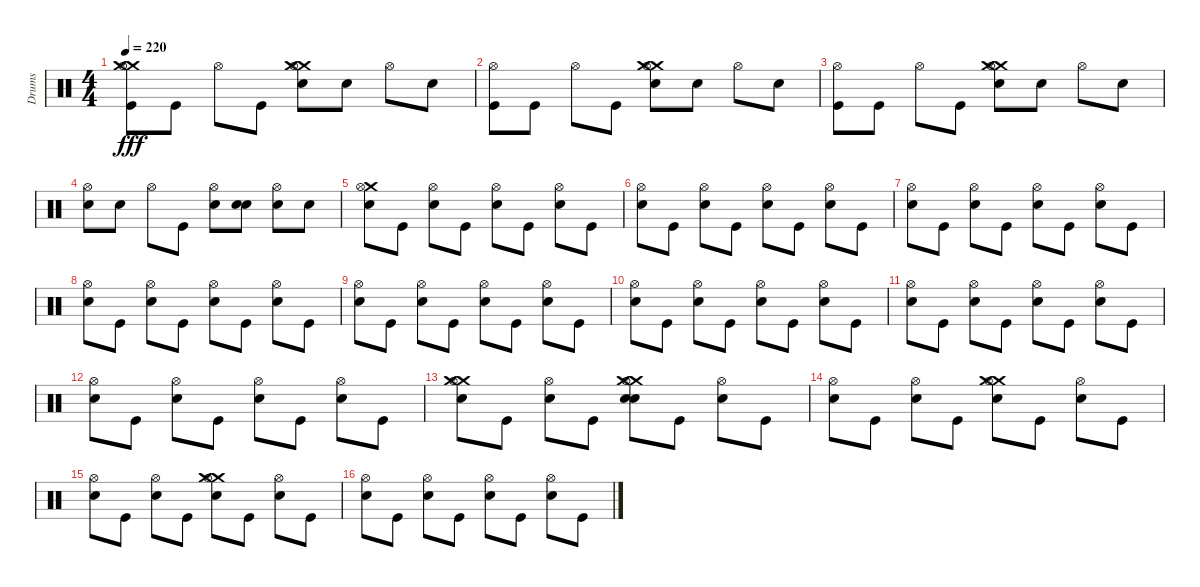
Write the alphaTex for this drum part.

\track ("Drums" "Drums") {instrument percussion}
\staff {score}
\articulation defaults
\ts (4 4)
\tempo 220
\clef neutral
\ks c
("Crash medium (hit)" "Crash medium (hit)" "Kick (hit)" "Hi-Hat (open)").8{dy fff} "Kick (hit)".8 "Hi-Hat (open)".8 "Kick (hit)".8 ("Crash medium (hit)" "Crash medium (hit)" "Snare (hit) 2" "Hi-Hat (open)").8 "Snare (hit) 2".8 "Hi-Hat (open)".8 "Snare (hit) 2".8 |
("Kick (hit)" "Hi-Hat (open)").8 "Kick (hit)".8 "Hi-Hat (open)".8 "Kick (hit)".8 ("Crash medium (hit)" "Crash medium (hit)" "Snare (hit) 2" "Hi-Hat (open)").8 "Snare (hit) 2".8 "Hi-Hat (open)".8 "Snare (hit) 2".8 |
("Kick (hit)" "Hi-Hat (open)").8 "Kick (hit)".8 "Hi-Hat (open)".8 "Kick (hit)".8 ("Crash medium (hit)" "Crash medium (hit)" "Snare (hit) 2" "Hi-Hat (open)").8 "Snare (hit) 2".8 "Hi-Hat (open)".8 "Snare (hit) 2".8 |
("Snare (hit) 2" "Hi-Hat (open)").8 "Snare (hit) 2".8 "Hi-Hat (open)".8 "Kick (hit)".8 ("Snare (hit) 2" "Hi-Hat (open)").8 ("Snare (hit) 2" "Snare (hit) 2").8 ("Snare (hit) 2" "Hi-Hat (open)").8 "Snare (hit) 2".8 |
("Crash medium (hit)" "Snare (hit) 2" "Hi-Hat (open)").8 "Kick (hit)".8 ("Hi-Hat (open)" "Snare (hit) 2").8 "Kick (hit)".8 ("Snare (hit) 2" "Hi-Hat (open)").8 "Kick (hit)".8 ("Hi-Hat (open)" "Snare (hit) 2").8 "Kick (hit)".8 |
("Snare (hit) 2" "Hi-Hat (open)").8 "Kick (hit)".8 ("Snare (hit) 2" "Hi-Hat (open)").8 "Kick (hit)".8 ("Snare (hit) 2" "Hi-Hat (open)").8 "Kick (hit)".8 ("Snare (hit) 2" "Hi-Hat (open)").8 "Kick (hit)".8 |
("Snare (hit) 2" "Hi-Hat (open)").8 "Kick (hit)".8 ("Hi-Hat (open)" "Snare (hit) 2").8 "Kick (hit)".8 ("Snare (hit) 2" "Hi-Hat (open)").8 "Kick (hit)".8 ("Hi-Hat (open)" "Snare (hit) 2").8 "Kick (hit)".8 |
("Snare (hit) 2" "Hi-Hat (open)").8 "Kick (hit)".8 ("Snare (hit) 2" "Hi-Hat (open)").8 "Kick (hit)".8 ("Snare (hit) 2" "Hi-Hat (open)").8 "Kick (hit)".8 ("Snare (hit) 2" "Hi-Hat (open)").8 "Kick (hit)".8 |
("Snare (hit) 2" "Hi-Hat (open)").8 "Kick (hit)".8 ("Hi-Hat (open)" "Snare (hit) 2").8 "Kick (hit)".8 ("Snare (hit) 2" "Hi-Hat (open)").8 "Kick (hit)".8 ("Hi-Hat (open)" "Snare (hit) 2").8 "Kick (hit)".8 |
("Snare (hit) 2" "Hi-Hat (open)").8 "Kick (hit)".8 ("Snare (hit) 2" "Hi-Hat (open)").8 "Kick (hit)".8 ("Snare (hit) 2" "Hi-Hat (open)").8 "Kick (hit)".8 ("Snare (hit) 2" "Hi-Hat (open)").8 "Kick (hit)".8 |
("Snare (hit) 2" "Hi-Hat (open)").8 "Kick (hit)".8 ("Hi-Hat (open)" "Snare (hit) 2").8 "Kick (hit)".8 ("Snare (hit) 2" "Hi-Hat (open)").8 "Kick (hit)".8 ("Hi-Hat (open)" "Snare (hit) 2").8 "Kick (hit)".8 |
("Snare (hit) 2" "Hi-Hat (open)").8 "Kick (hit)".8 ("Snare (hit) 2" "Hi-Hat (open)").8 "Kick (hit)".8 ("Snare (hit) 2" "Hi-Hat (open)").8 "Kick (hit)".8 ("Snare (hit) 2" "Hi-Hat (open)").8 "Kick (hit)".8 |
("Snare (hit) 2" "Crash medium (hit)" "Crash medium (hit)" "Hi-Hat (open)").8 "Kick (hit)".8 ("Snare (hit) 2" "Hi-Hat (open)").8 "Kick (hit)".8 ("Snare (hit) 2" "Crash medium (hit)" "Crash medium (hit)" "Snare (hit) 2" "Hi-Hat (open)").8 "Kick (hit)".8 ("Snare (hit) 2" "Hi-Hat (open)").8 "Kick (hit)".8 |
("Snare (hit) 2" "Hi-Hat (open)").8 "Kick (hit)".8 ("Snare (hit) 2" "Hi-Hat (open)").8 "Kick (hit)".8 ("Crash medium (hit)" "Crash medium (hit)" "Snare (hit) 2" "Hi-Hat (open)").8 "Kick (hit)".8 ("Snare (hit) 2" "Hi-Hat (open)").8 "Kick (hit)".8 |
("Snare (hit) 2" "Hi-Hat (open)").8 "Kick (hit)".8 ("Snare (hit) 2" "Hi-Hat (open)").8 "Kick (hit)".8 ("Crash medium (hit)" "Crash medium (hit)" "Snare (hit) 2" "Hi-Hat (open)").8 "Kick (hit)".8 ("Snare (hit) 2" "Hi-Hat (open)").8 "Kick (hit)".8 |
("Snare (hit) 2" "Hi-Hat (open)").8 "Kick (hit)".8 ("Snare (hit) 2" "Hi-Hat (open)").8 "Kick (hit)".8 ("Snare (hit) 2" "Hi-Hat (open)").8 "Kick (hit)".8 ("Snare (hit) 2" "Hi-Hat (open)").8 "Kick (hit)".8
